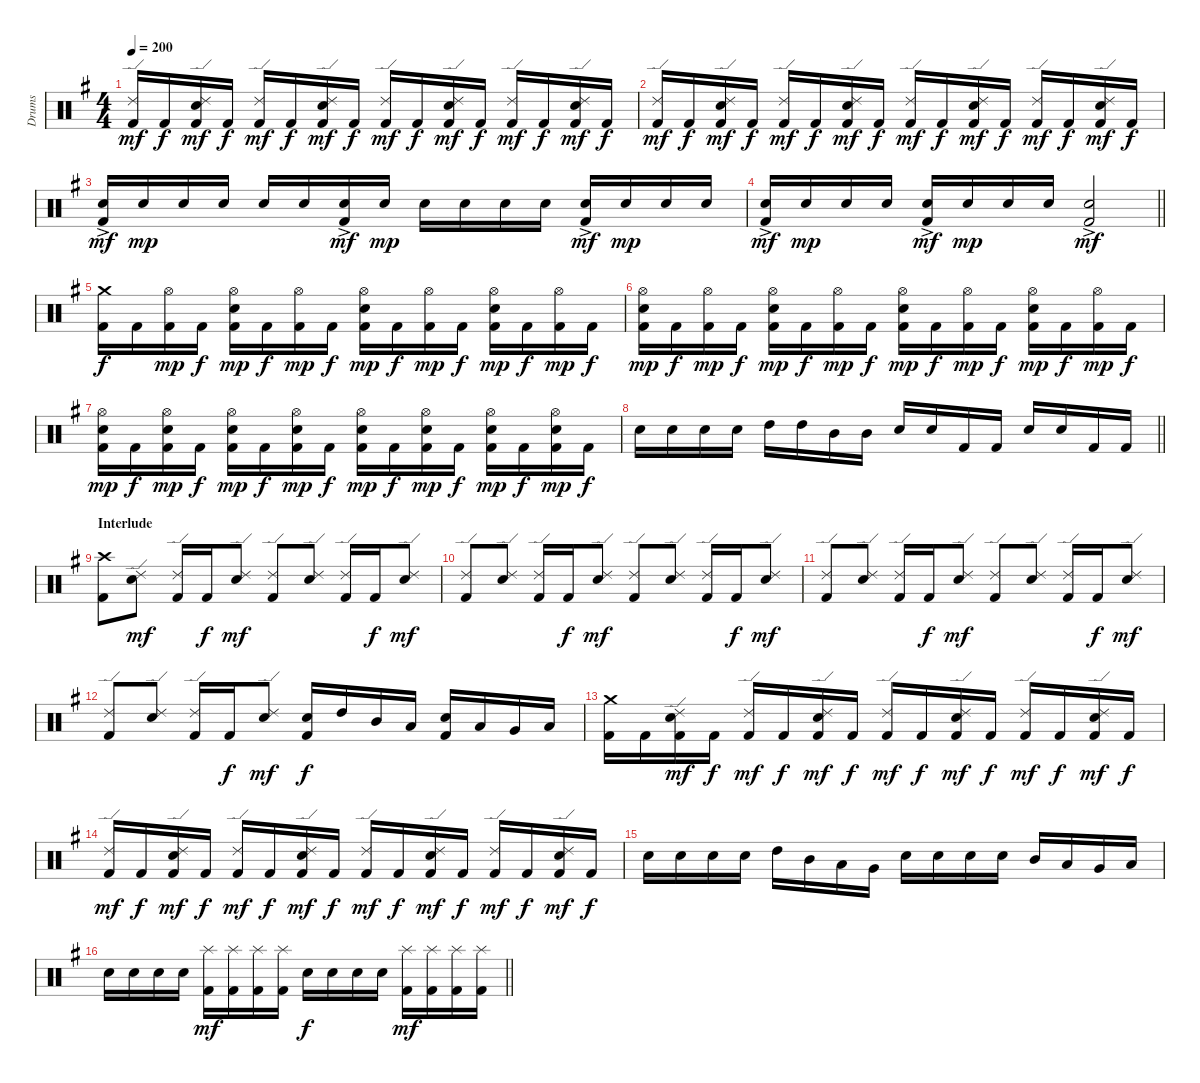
\track ("Drums" "Drums") {instrument percussion}
\staff {score}
\articulation defaults
\ts (4 4)
\tempo 200
\clef neutral
\ks g
("Ride (edge) 2" "Kick (hit) 2").16{dy mf} "Kick (hit) 2".16{dy f} ("Ride (edge) 2" "Snare (hit) 2" "Kick (hit) 2").16{dy mf} "Kick (hit) 2".16{dy f} ("Ride (edge) 2" "Kick (hit) 2").16{dy mf} "Kick (hit) 2".16{dy f} ("Ride (edge) 2" "Snare (hit) 2" "Kick (hit) 2").16{dy mf} "Kick (hit) 2".16{dy f} ("Ride (edge) 2" "Kick (hit) 2").16{dy mf} "Kick (hit) 2".16{dy f} ("Ride (edge) 2" "Snare (hit) 2" "Kick (hit) 2").16{dy mf} "Kick (hit) 2".16{dy f} ("Ride (edge) 2" "Kick (hit) 2").16{dy mf} "Kick (hit) 2".16{dy f} ("Ride (edge) 2" "Snare (hit) 2" "Kick (hit) 2").16{dy mf} "Kick (hit) 2".16{dy f} |
("Ride (edge) 2" "Kick (hit) 2").16{dy mf} "Kick (hit) 2".16{dy f} ("Ride (edge) 2" "Snare (hit) 2" "Kick (hit) 2").16{dy mf} "Kick (hit) 2".16{dy f} ("Ride (edge) 2" "Kick (hit) 2").16{dy mf} "Kick (hit) 2".16{dy f} ("Ride (edge) 2" "Snare (hit) 2" "Kick (hit) 2").16{dy mf} "Kick (hit) 2".16{dy f} ("Ride (edge) 2" "Kick (hit) 2").16{dy mf} "Kick (hit) 2".16{dy f} ("Ride (edge) 2" "Snare (hit) 2" "Kick (hit) 2").16{dy mf} "Kick (hit) 2".16{dy f} ("Ride (edge) 2" "Kick (hit) 2").16{dy mf} "Kick (hit) 2".16{dy f} ("Ride (edge) 2" "Snare (hit) 2" "Kick (hit) 2").16{dy mf} "Kick (hit) 2".16{dy f} |
("Snare (hit) 2"{ac} "Kick (hit) 2").16{dy mf} "Snare (hit) 2".16{dy mp} "Snare (hit) 2".16 "Snare (hit) 2".16 "Snare (hit) 2".16 "Snare (hit) 2".16 ("Snare (hit) 2"{ac} "Kick (hit) 2").16{dy mf} "Snare (hit) 2".16{dy mp} "Snare (hit) 2".16 "Snare (hit) 2".16 "Snare (hit) 2".16 "Snare (hit) 2".16 ("Snare (hit) 2"{ac} "Kick (hit) 2").16{dy mf} "Snare (hit) 2".16{dy mp} "Snare (hit) 2".16 "Snare (hit) 2".16 |
\barLineRight lightlight
("Snare (hit) 2"{ac} "Kick (hit) 2").16{dy mf} "Snare (hit) 2".16{dy mp} "Snare (hit) 2".16 "Snare (hit) 2".16 ("Snare (hit) 2"{ac} "Kick (hit) 2").16{dy mf} "Snare (hit) 2".16{dy mp} "Snare (hit) 2".16 "Snare (hit) 2".16 ("Snare (hit) 2"{ac} "Kick (hit) 2").2{dy mf} |
\section ("" "")
("Crash medium (hit)" "Kick (hit) 2").16{dy f} "Kick (hit) 2".16 ("Hi-Hat (open)" "Kick (hit) 2").16{dy mp} "Kick (hit) 2".16{dy f} ("Hi-Hat (open)" "Snare (hit) 2" "Kick (hit) 2").16{dy mp} "Kick (hit) 2".16{dy f} ("Hi-Hat (open)" "Kick (hit) 2").16{dy mp} "Kick (hit) 2".16{dy f} ("Hi-Hat (open)" "Snare (hit) 2" "Kick (hit) 2").16{dy mp} "Kick (hit) 2".16{dy f} ("Hi-Hat (open)" "Kick (hit) 2").16{dy mp} "Kick (hit) 2".16{dy f} ("Hi-Hat (open)" "Snare (hit) 2" "Kick (hit) 2").16{dy mp} "Kick (hit) 2".16{dy f} ("Hi-Hat (open)" "Kick (hit) 2").16{dy mp} "Kick (hit) 2".16{dy f} |
("Hi-Hat (open)" "Snare (hit) 2" "Kick (hit) 2").16{dy mp} "Kick (hit) 2".16{dy f} ("Hi-Hat (open)" "Kick (hit) 2").16{dy mp} "Kick (hit) 2".16{dy f} ("Hi-Hat (open)" "Snare (hit) 2" "Kick (hit) 2").16{dy mp} "Kick (hit) 2".16{dy f} ("Hi-Hat (open)" "Kick (hit) 2").16{dy mp} "Kick (hit) 2".16{dy f} ("Hi-Hat (open)" "Snare (hit) 2" "Kick (hit) 2").16{dy mp} "Kick (hit) 2".16{dy f} ("Hi-Hat (open)" "Kick (hit) 2").16{dy mp} "Kick (hit) 2".16{dy f} ("Hi-Hat (open)" "Snare (hit) 2" "Kick (hit) 2").16{dy mp} "Kick (hit) 2".16{dy f} ("Hi-Hat (open)" "Kick (hit) 2").16{dy mp} "Kick (hit) 2".16{dy f} |
("Hi-Hat (open)" "Snare (hit) 2" "Kick (hit) 2").16{dy mp} "Kick (hit) 2".16{dy f} ("Hi-Hat (open)" "Snare (hit) 2" "Kick (hit) 2").16{dy mp} "Kick (hit) 2".16{dy f} ("Hi-Hat (open)" "Snare (hit) 2" "Kick (hit) 2").16{dy mp} "Kick (hit) 2".16{dy f} ("Hi-Hat (open)" "Snare (hit) 2" "Kick (hit) 2").16{dy mp} "Kick (hit) 2".16{dy f} ("Hi-Hat (open)" "Snare (hit) 2" "Kick (hit) 2").16{dy mp} "Kick (hit) 2".16{dy f} ("Hi-Hat (open)" "Snare (hit) 2" "Kick (hit) 2").16{dy mp} "Kick (hit) 2".16{dy f} ("Hi-Hat (open)" "Snare (hit) 2" "Kick (hit) 2").16{dy mp} "Kick (hit) 2".16{dy f} ("Hi-Hat (open)" "Snare (hit) 2" "Kick (hit) 2").16{dy mp} "Kick (hit) 2".16{dy f} |
\barLineRight lightlight "Snare (hit) 2".16 "Snare (hit) 2".16 "Snare (hit) 2".16 "Snare (hit) 2".16 "High Tom (hit)".16 "High Tom (hit)".16 "Mid Tom (hit)".16 "Mid Tom (hit)".16 "Snare (hit) 2".16 "Snare (hit) 2".16 "Kick (hit) 2".16 "Kick (hit) 2".16 "Snare (hit) 2".16 "Snare (hit) 2".16 "Kick (hit) 2".16 "Kick (hit) 2".16
|
\section ("" "Interlude")
("Crash high (hit)" "Kick (hit) 2").8 ("Ride (edge) 2" "Snare (hit) 2").8{dy mf} ("Ride (edge) 2" "Kick (hit) 2").16 "Kick (hit) 2".16{dy f} ("Ride (edge) 2" "Snare (hit) 2").8{dy mf} ("Ride (edge) 2" "Kick (hit) 2").8 ("Ride (edge) 2" "Snare (hit) 2").8 ("Ride (edge) 2" "Kick (hit) 2").16 "Kick (hit) 2".16{dy f} ("Ride (edge) 2" "Snare (hit) 2").8{dy mf} |
("Ride (edge) 2" "Kick (hit) 2").8 ("Ride (edge) 2" "Snare (hit) 2").8 ("Ride (edge) 2" "Kick (hit) 2").16 "Kick (hit) 2".16{dy f} ("Ride (edge) 2" "Snare (hit) 2").8{dy mf} ("Ride (edge) 2" "Kick (hit) 2").8 ("Ride (edge) 2" "Snare (hit) 2").8 ("Ride (edge) 2" "Kick (hit) 2").16 "Kick (hit) 2".16{dy f} ("Ride (edge) 2" "Snare (hit) 2").8{dy mf} |
("Ride (edge) 2" "Kick (hit) 2").8 ("Ride (edge) 2" "Snare (hit) 2").8 ("Ride (edge) 2" "Kick (hit) 2").16 "Kick (hit) 2".16{dy f} ("Ride (edge) 2" "Snare (hit) 2").8{dy mf} ("Ride (edge) 2" "Kick (hit) 2").8 ("Ride (edge) 2" "Snare (hit) 2").8 ("Ride (edge) 2" "Kick (hit) 2").16 "Kick (hit) 2".16{dy f} ("Ride (edge) 2" "Snare (hit) 2").8{dy mf} |
("Ride (edge) 2" "Kick (hit) 2").8 ("Ride (edge) 2" "Snare (hit) 2").8 ("Ride (edge) 2" "Kick (hit) 2").16 "Kick (hit) 2".16{dy f} ("Ride (edge) 2" "Snare (hit) 2").8{dy mf} ("Snare (hit) 2" "Kick (hit) 2").16{dy f} "High Tom (hit)".16 "Mid Tom (hit)".16 "Low Tom (hit)".16 ("Snare (hit) 2" "Kick (hit) 2").16 "Low Tom (hit)".16 "Very Low Tom (hit)".16 "Low Floor Tom (hit)".16 |
("Crash medium (hit)" "Kick (hit) 2").16 "Kick (hit) 2".16 ("Ride (edge) 2" "Snare (hit) 2" "Kick (hit) 2").16{dy mf} "Kick (hit) 2".16{dy f} ("Ride (edge) 2" "Kick (hit) 2").16{dy mf} "Kick (hit) 2".16{dy f} ("Ride (edge) 2" "Snare (hit) 2" "Kick (hit) 2").16{dy mf} "Kick (hit) 2".16{dy f} ("Ride (edge) 2" "Kick (hit) 2").16{dy mf} "Kick (hit) 2".16{dy f} ("Ride (edge) 2" "Snare (hit) 2" "Kick (hit) 2").16{dy mf} "Kick (hit) 2".16{dy f} ("Ride (edge) 2" "Kick (hit) 2").16{dy mf} "Kick (hit) 2".16{dy f} ("Ride (edge) 2" "Snare (hit) 2" "Kick (hit) 2").16{dy mf} "Kick (hit) 2".16{dy f} |
("Ride (edge) 2" "Kick (hit) 2").16{dy mf} "Kick (hit) 2".16{dy f} ("Ride (edge) 2" "Snare (hit) 2" "Kick (hit) 2").16{dy mf} "Kick (hit) 2".16{dy f} ("Ride (edge) 2" "Kick (hit) 2").16{dy mf} "Kick (hit) 2".16{dy f} ("Ride (edge) 2" "Snare (hit) 2" "Kick (hit) 2").16{dy mf} "Kick (hit) 2".16{dy f} ("Ride (edge) 2" "Kick (hit) 2").16{dy mf} "Kick (hit) 2".16{dy f} ("Ride (edge) 2" "Snare (hit) 2" "Kick (hit) 2").16{dy mf} "Kick (hit) 2".16{dy f} ("Ride (edge) 2" "Kick (hit) 2").16{dy mf} "Kick (hit) 2".16{dy f} ("Ride (edge) 2" "Snare (hit) 2" "Kick (hit) 2").16{dy mf} "Kick (hit) 2".16{dy f} |
"Snare (hit) 2".16 "Snare (hit) 2".16 "Snare (hit) 2".16 "Snare (hit) 2".16 "High Tom (hit)".16 "Mid Tom (hit)".16 "Low Tom (hit)".16 "Very Low Tom (hit)".16 "Snare (hit) 2".16 "Snare (hit) 2".16 "Snare (hit) 2".16 "Snare (hit) 2".16 "Mid Tom (hit)".16 "Low Tom (hit)".16 "Very Low Tom (hit)".16 "Low Floor Tom (hit)".16 |
\barLineRight lightlight "Snare (hit) 2".16 "Snare (hit) 2".16 "Snare (hit) 2".16 "Snare (hit) 2".16
("Splash (hit)" "Kick (hit) 2").16{dy mf} ("Splash (hit)" "Kick (hit) 2").16 ("Splash (hit)" "Kick (hit) 2").16 ("Splash (hit)" "Kick (hit) 2").16 "Snare (hit) 2".16{dy f} "Snare (hit) 2".16 "Snare (hit) 2".16 "Snare (hit) 2".16 ("Splash (hit)" "Kick (hit) 2").16{dy mf} ("Splash (hit)" "Kick (hit) 2").16 ("Splash (hit)" "Kick (hit) 2").16 ("Splash (hit)" "Kick (hit) 2").16
